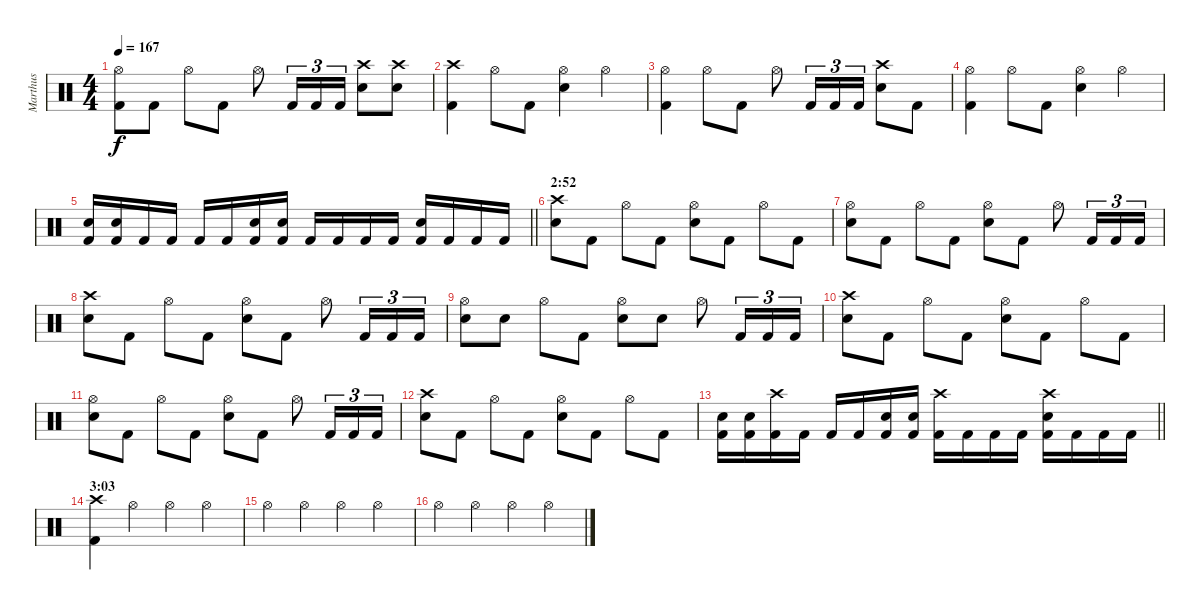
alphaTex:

\track ("Marthus" "Marthus") {instrument percussion}
\staff {score}
\articulation defaults
\ts (4 4)
\tempo 167
\clef neutral
\ks c
("Kick (hit) 2" "Hi-Hat (open)").8{dy f} "Kick (hit) 2".8 "Hi-Hat (open)".8 "Kick (hit) 2".8 "Hi-Hat (open)".8 "Kick (hit) 2".16{tu (3 2)} "Kick (hit) 2".16{tu (3 2)} "Kick (hit) 2".16{tu (3 2)} ("Snare (hit) 2" "Crash high (hit)").8 ("Snare (hit) 2" "Crash high (hit)").8 |
("Kick (hit) 2" "Crash high (hit)").4 "Hi-Hat (open)".8 "Kick (hit) 2".8 ("Snare (hit) 2" "Hi-Hat (open)").4 "Hi-Hat (open)".4 |
("Kick (hit) 2" "Hi-Hat (open)").4 "Hi-Hat (open)".8 "Kick (hit) 2".8 "Hi-Hat (open)".8 "Kick (hit) 2".16{tu (3 2)} "Kick (hit) 2".16{tu (3 2)} "Kick (hit) 2".16{tu (3 2)} ("Snare (hit) 2" "Crash high (hit)").8 "Kick (hit) 2".8 |
("Kick (hit) 2" "Hi-Hat (open)").4 "Hi-Hat (open)".8 "Kick (hit) 2".8 ("Snare (hit) 2" "Hi-Hat (open)").4 "Hi-Hat (open)".4 |
\barLineRight lightlight
("Kick (hit) 2" "Snare (hit) 2").16 ("Kick (hit) 2" "Snare (hit) 2").16 "Kick (hit) 2".16 "Kick (hit) 2".16 "Kick (hit) 2".16 "Kick (hit) 2".16 ("Kick (hit) 2" "Snare (hit) 2").16 ("Kick (hit) 2" "Snare (hit) 2").16 "Kick (hit) 2".16 "Kick (hit) 2".16 "Kick (hit) 2".16 "Kick (hit) 2".16 ("Kick (hit) 2" "Snare (hit) 2").16 "Kick (hit) 2".16 "Kick (hit) 2".16 "Kick (hit) 2".16 |
\section ("" "2:52")
("Snare (hit) 2" "Crash high (hit)").8 "Kick (hit) 2".8 "Hi-Hat (open)".8 "Kick (hit) 2".8 ("Snare (hit) 2" "Hi-Hat (open)").8 "Kick (hit) 2".8 "Hi-Hat (open)".8 "Kick (hit) 2".8 |
("Snare (hit) 2" "Hi-Hat (open)").8 "Kick (hit) 2".8 "Hi-Hat (open)".8 "Kick (hit) 2".8 ("Snare (hit) 2" "Hi-Hat (open)").8 "Kick (hit) 2".8 "Hi-Hat (open)".8 "Kick (hit) 2".16{tu (3 2)} "Kick (hit) 2".16{tu (3 2)} "Kick (hit) 2".16{tu (3 2)} |
("Snare (hit) 2" "Crash high (hit)").8 "Kick (hit) 2".8 "Hi-Hat (open)".8 "Kick (hit) 2".8 ("Snare (hit) 2" "Hi-Hat (open)").8 "Kick (hit) 2".8 "Hi-Hat (open)".8 "Kick (hit) 2".16{tu (3 2)} "Kick (hit) 2".16{tu (3 2)} "Kick (hit) 2".16{tu (3 2)} |
("Snare (hit) 2" "Hi-Hat (open)").8 "Snare (hit) 2".8 "Hi-Hat (open)".8 "Kick (hit) 2".8 ("Snare (hit) 2" "Hi-Hat (open)").8 "Snare (hit) 2".8 "Hi-Hat (open)".8 "Kick (hit) 2".16{tu (3 2)} "Kick (hit) 2".16{tu (3 2)} "Kick (hit) 2".16{tu (3 2)} |
("Snare (hit) 2" "Crash high (hit)").8 "Kick (hit) 2".8 "Hi-Hat (open)".8 "Kick (hit) 2".8 ("Snare (hit) 2" "Hi-Hat (open)").8 "Kick (hit) 2".8 "Hi-Hat (open)".8 "Kick (hit) 2".8 |
("Snare (hit) 2" "Hi-Hat (open)").8 "Kick (hit) 2".8 "Hi-Hat (open)".8 "Kick (hit) 2".8 ("Snare (hit) 2" "Hi-Hat (open)").8 "Kick (hit) 2".8 "Hi-Hat (open)".8 "Kick (hit) 2".16{tu (3 2)} "Kick (hit) 2".16{tu (3 2)} "Kick (hit) 2".16{tu (3 2)} |
("Snare (hit) 2" "Crash high (hit)").8 "Kick (hit) 2".8 "Hi-Hat (open)".8 "Kick (hit) 2".8 ("Snare (hit) 2" "Hi-Hat (open)").8 "Kick (hit) 2".8 "Hi-Hat (open)".8 "Kick (hit) 2".8 |
\barLineRight lightlight
("Kick (hit) 2" "Snare (hit) 2").16 ("Kick (hit) 2" "Snare (hit) 2").16 ("Kick (hit) 2" "Crash high (hit)").16 "Kick (hit) 2".16 "Kick (hit) 2".16 "Kick (hit) 2".16 ("Kick (hit) 2" "Snare (hit) 2").16 ("Kick (hit) 2" "Snare (hit) 2").16 ("Kick (hit) 2" "Crash high (hit)").16 "Kick (hit) 2".16 "Kick (hit) 2".16 "Kick (hit) 2".16 ("Kick (hit) 2" "Snare (hit) 2" "Crash high (hit)").16 "Kick (hit) 2".16 "Kick (hit) 2".16 "Kick (hit) 2".16 |
\section ("" "3:03")
("Kick (hit) 2" "Crash high (hit)").4 "Hi-Hat (open)".4 "Hi-Hat (open)".4 "Hi-Hat (open)".4 |
"Hi-Hat (open)".4 "Hi-Hat (open)".4 "Hi-Hat (open)".4 "Hi-Hat (open)".4 |
"Hi-Hat (open)".4 "Hi-Hat (open)".4 "Hi-Hat (open)".4 "Hi-Hat (open)".4
